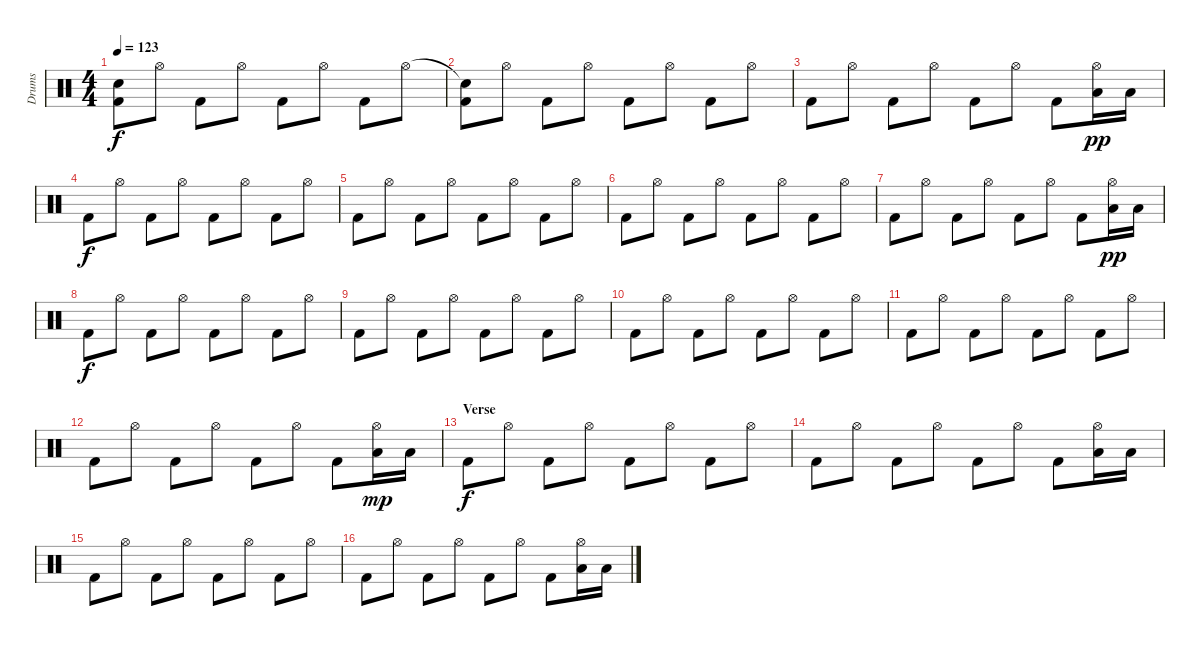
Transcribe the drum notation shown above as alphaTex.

\track ("Drums" "Drums") {instrument percussion}
\staff {score}
\articulation defaults
\ts (4 4)
\tempo 123
\clef neutral
\ks c
("Snare (hit)"{t} "Kick (hit) 2").8{dy f} "Hi-Hat (open)".8 "Kick (hit) 2".8 "Hi-Hat (open)".8 "Kick (hit) 2".8 "Hi-Hat (open)".8 "Kick (hit) 2".8 "Hi-Hat (open)".8 |
("Snare (hit)"{t} "Kick (hit) 2").8 "Hi-Hat (open)".8 "Kick (hit) 2".8 "Hi-Hat (open)".8 "Kick (hit) 2".8 "Hi-Hat (open)".8 "Kick (hit) 2".8 "Hi-Hat (open)".8 |
"Kick (hit) 2".8 "Hi-Hat (open)".8 "Kick (hit) 2".8 "Hi-Hat (open)".8 "Kick (hit) 2".8 "Hi-Hat (open)".8 "Kick (hit) 2".8 ("Hi-Hat (open)" "Low Tom (hit)").16{dy pp} "Low Tom (hit)".16 |
"Kick (hit) 2".8{dy f} "Hi-Hat (open)".8 "Kick (hit) 2".8 "Hi-Hat (open)".8 "Kick (hit) 2".8 "Hi-Hat (open)".8 "Kick (hit) 2".8 "Hi-Hat (open)".8 |
"Kick (hit) 2".8 "Hi-Hat (open)".8 "Kick (hit) 2".8 "Hi-Hat (open)".8 "Kick (hit) 2".8 "Hi-Hat (open)".8 "Kick (hit) 2".8 "Hi-Hat (open)".8 |
"Kick (hit) 2".8 "Hi-Hat (open)".8 "Kick (hit) 2".8 "Hi-Hat (open)".8 "Kick (hit) 2".8 "Hi-Hat (open)".8 "Kick (hit) 2".8 "Hi-Hat (open)".8 |
"Kick (hit) 2".8 "Hi-Hat (open)".8 "Kick (hit) 2".8 "Hi-Hat (open)".8 "Kick (hit) 2".8 "Hi-Hat (open)".8 "Kick (hit) 2".8 ("Hi-Hat (open)" "Low Tom (hit)").16{dy pp} "Low Tom (hit)".16 |
"Kick (hit) 2".8{dy f} "Hi-Hat (open)".8 "Kick (hit) 2".8 "Hi-Hat (open)".8 "Kick (hit) 2".8 "Hi-Hat (open)".8 "Kick (hit) 2".8 "Hi-Hat (open)".8 |
"Kick (hit) 2".8 "Hi-Hat (open)".8 "Kick (hit) 2".8 "Hi-Hat (open)".8 "Kick (hit) 2".8 "Hi-Hat (open)".8 "Kick (hit) 2".8 "Hi-Hat (open)".8 |
"Kick (hit) 2".8 "Hi-Hat (open)".8 "Kick (hit) 2".8 "Hi-Hat (open)".8 "Kick (hit) 2".8 "Hi-Hat (open)".8 "Kick (hit) 2".8 "Hi-Hat (open)".8 |
"Kick (hit) 2".8 "Hi-Hat (open)".8 "Kick (hit) 2".8 "Hi-Hat (open)".8 "Kick (hit) 2".8 "Hi-Hat (open)".8 "Kick (hit) 2".8 "Hi-Hat (open)".8 |
"Kick (hit) 2".8 "Hi-Hat (open)".8 "Kick (hit) 2".8 "Hi-Hat (open)".8 "Kick (hit) 2".8 "Hi-Hat (open)".8 "Kick (hit) 2".8 ("Hi-Hat (open)" "Low Tom (hit)").16{dy mp} "Low Tom (hit)".16 |
\section ("" "Verse")
"Kick (hit) 2".8{dy f} "Hi-Hat (open)".8 "Kick (hit) 2".8 "Hi-Hat (open)".8 "Kick (hit) 2".8 "Hi-Hat (open)".8 "Kick (hit) 2".8 "Hi-Hat (open)".8 |
"Kick (hit) 2".8 "Hi-Hat (open)".8 "Kick (hit) 2".8 "Hi-Hat (open)".8 "Kick (hit) 2".8 "Hi-Hat (open)".8 "Kick (hit) 2".8 ("Hi-Hat (open)" "Low Tom (hit)").16 "Low Tom (hit)".16 |
"Kick (hit) 2".8 "Hi-Hat (open)".8 "Kick (hit) 2".8 "Hi-Hat (open)".8 "Kick (hit) 2".8 "Hi-Hat (open)".8 "Kick (hit) 2".8 "Hi-Hat (open)".8 |
"Kick (hit) 2".8 "Hi-Hat (open)".8 "Kick (hit) 2".8 "Hi-Hat (open)".8 "Kick (hit) 2".8 "Hi-Hat (open)".8 "Kick (hit) 2".8 ("Hi-Hat (open)" "Low Tom (hit)").16 "Low Tom (hit)".16
